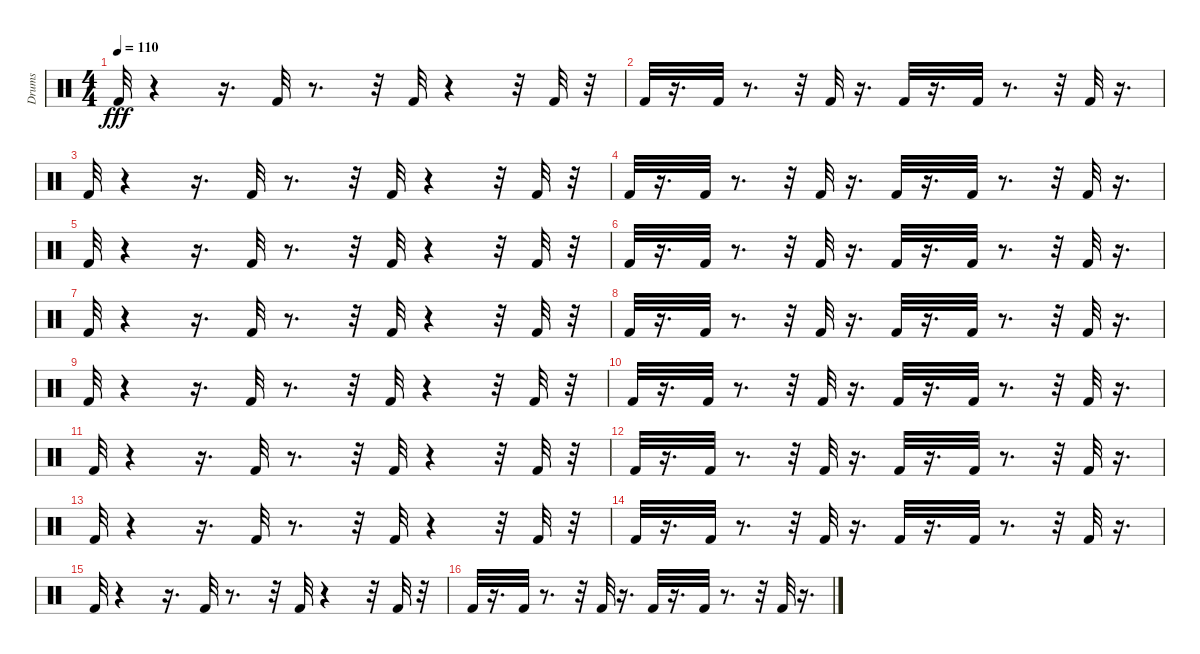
\track ("Drums" "Drums") {instrument percussion}
\staff {score}
\articulation defaults
\ts (4 4)
\tempo 110
\clef neutral
\ks c "Kick (hit) 2".32{dy fff}
r.4 r.16{d} "Kick (hit) 2".32 r.8{d} r.32 "Kick (hit) 2".32 r.4 r.32 "Kick (hit) 2".32 r.32 |
"Kick (hit) 2".32 r.16{d} "Kick (hit) 2".32 r.8{d} r.32 "Kick (hit) 2".32 r.16{d} "Kick (hit) 2".32 r.16{d} "Kick (hit) 2".32 r.8{d} r.32 "Kick (hit) 2".32 r.16{d} |
"Kick (hit) 2".32 r.4 r.16{d} "Kick (hit) 2".32 r.8{d} r.32 "Kick (hit) 2".32 r.4 r.32 "Kick (hit) 2".32 r.32 |
"Kick (hit) 2".32 r.16{d} "Kick (hit) 2".32 r.8{d} r.32 "Kick (hit) 2".32 r.16{d} "Kick (hit) 2".32 r.16{d} "Kick (hit) 2".32 r.8{d} r.32 "Kick (hit) 2".32 r.16{d} |
"Kick (hit) 2".32 r.4 r.16{d} "Kick (hit) 2".32 r.8{d} r.32 "Kick (hit) 2".32 r.4 r.32 "Kick (hit) 2".32 r.32 |
"Kick (hit) 2".32 r.16{d} "Kick (hit) 2".32 r.8{d} r.32 "Kick (hit) 2".32 r.16{d} "Kick (hit) 2".32 r.16{d} "Kick (hit) 2".32 r.8{d} r.32 "Kick (hit) 2".32 r.16{d} |
"Kick (hit) 2".32 r.4 r.16{d} "Kick (hit) 2".32 r.8{d} r.32 "Kick (hit) 2".32 r.4 r.32 "Kick (hit) 2".32 r.32 |
"Kick (hit) 2".32 r.16{d} "Kick (hit) 2".32 r.8{d} r.32 "Kick (hit) 2".32 r.16{d} "Kick (hit) 2".32 r.16{d} "Kick (hit) 2".32 r.8{d} r.32 "Kick (hit) 2".32 r.16{d} |
"Kick (hit) 2".32 r.4 r.16{d} "Kick (hit) 2".32 r.8{d} r.32 "Kick (hit) 2".32 r.4 r.32 "Kick (hit) 2".32 r.32 |
"Kick (hit) 2".32 r.16{d} "Kick (hit) 2".32 r.8{d} r.32 "Kick (hit) 2".32 r.16{d} "Kick (hit) 2".32 r.16{d} "Kick (hit) 2".32 r.8{d} r.32 "Kick (hit) 2".32 r.16{d} |
"Kick (hit) 2".32 r.4 r.16{d} "Kick (hit) 2".32 r.8{d} r.32 "Kick (hit) 2".32 r.4 r.32 "Kick (hit) 2".32 r.32 |
"Kick (hit) 2".32 r.16{d} "Kick (hit) 2".32 r.8{d} r.32 "Kick (hit) 2".32 r.16{d} "Kick (hit) 2".32 r.16{d} "Kick (hit) 2".32 r.8{d} r.32 "Kick (hit) 2".32 r.16{d} |
"Kick (hit) 2".32 r.4 r.16{d} "Kick (hit) 2".32 r.8{d} r.32 "Kick (hit) 2".32 r.4 r.32 "Kick (hit) 2".32 r.32 |
"Kick (hit) 2".32 r.16{d} "Kick (hit) 2".32 r.8{d} r.32 "Kick (hit) 2".32 r.16{d} "Kick (hit) 2".32 r.16{d} "Kick (hit) 2".32 r.8{d} r.32 "Kick (hit) 2".32 r.16{d} |
"Kick (hit) 2".32 r.4 r.16{d} "Kick (hit) 2".32 r.8{d} r.32 "Kick (hit) 2".32 r.4 r.32 "Kick (hit) 2".32 r.32 |
"Kick (hit) 2".32 r.16{d} "Kick (hit) 2".32 r.8{d} r.32 "Kick (hit) 2".32 r.16{d} "Kick (hit) 2".32 r.16{d} "Kick (hit) 2".32 r.8{d} r.32 "Kick (hit) 2".32 r.16{d}
